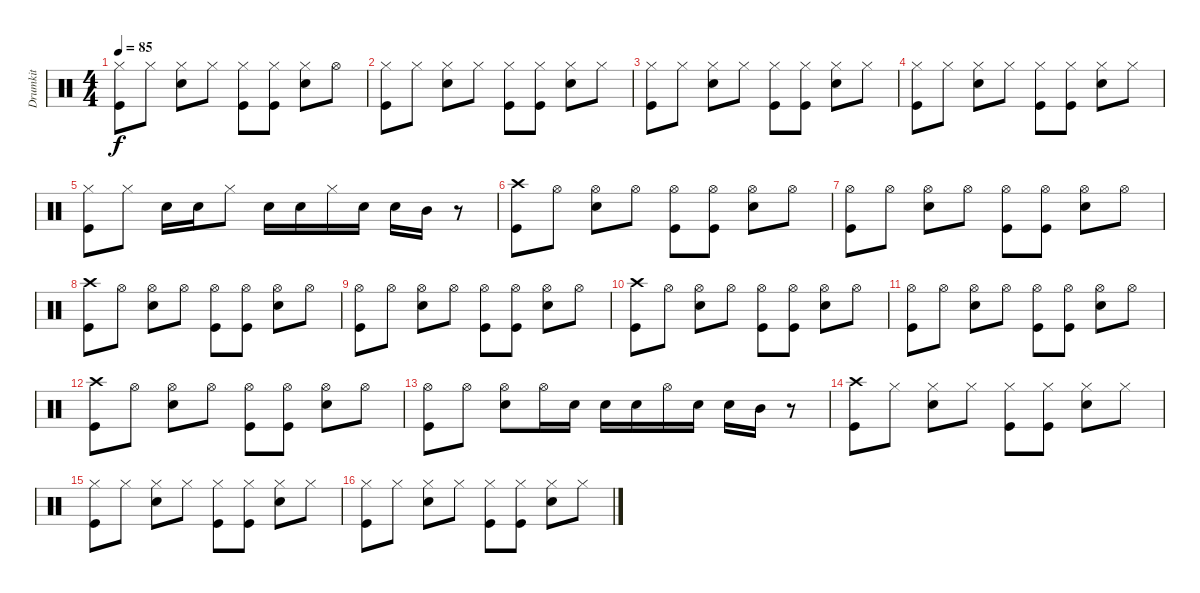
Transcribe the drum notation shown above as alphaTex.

\track ("Drumkit" "Drumkit") {instrument percussion}
\staff {score}
\articulation defaults
\ts (4 4)
\tempo 85
\clef neutral
\ks c
("Hi-Hat (closed)" "Kick (hit)").8{dy f} "Hi-Hat (closed)".8 ("Hi-Hat (closed)" "Snare (hit) 2").8 "Hi-Hat (closed)".8 ("Hi-Hat (closed)" "Kick (hit)").8 ("Hi-Hat (closed)" "Kick (hit)").8 ("Hi-Hat (closed)" "Snare (hit) 2").8 "Hi-Hat (open)".8 |
("Hi-Hat (closed)" "Kick (hit)").8 "Hi-Hat (closed)".8 ("Hi-Hat (closed)" "Snare (hit) 2").8 "Hi-Hat (closed)".8 ("Hi-Hat (closed)" "Kick (hit)").8 ("Hi-Hat (closed)" "Kick (hit)").8 ("Hi-Hat (closed)" "Snare (hit) 2").8 "Hi-Hat (closed)".8 |
("Hi-Hat (closed)" "Kick (hit)").8 "Hi-Hat (closed)".8 ("Hi-Hat (closed)" "Snare (hit) 2").8 "Hi-Hat (closed)".8 ("Hi-Hat (closed)" "Kick (hit)").8 ("Hi-Hat (closed)" "Kick (hit)").8 ("Hi-Hat (closed)" "Snare (hit) 2").8 "Hi-Hat (closed)".8 |
("Hi-Hat (closed)" "Kick (hit)").8 "Hi-Hat (closed)".8 ("Hi-Hat (closed)" "Snare (hit) 2").8 "Hi-Hat (closed)".8 ("Hi-Hat (closed)" "Kick (hit)").8 ("Hi-Hat (closed)" "Kick (hit)").8 ("Hi-Hat (closed)" "Snare (hit) 2").8 "Hi-Hat (closed)".8 |
("Hi-Hat (closed)" "Kick (hit)").8 "Hi-Hat (closed)".8 "Snare (hit) 2".16 "Snare (hit) 2".16 "Hi-Hat (closed)".8 "Snare (hit) 2".16 "Snare (hit) 2".16 "Hi-Hat (closed)".16 "Snare (hit) 2".16 "Snare (hit) 2".16 "Mid Tom (hit)".16 r.8 |
("Crash high (hit)" "Kick (hit)").8 "Hi-Hat (open)".8 ("Hi-Hat (open)" "Snare (hit) 2").8 "Hi-Hat (open)".8 ("Hi-Hat (open)" "Kick (hit)").8 ("Hi-Hat (open)" "Kick (hit)").8 ("Hi-Hat (open)" "Snare (hit) 2").8 "Hi-Hat (open)".8 |
("Hi-Hat (open)" "Kick (hit)").8 "Hi-Hat (open)".8 ("Hi-Hat (open)" "Snare (hit) 2").8 "Hi-Hat (open)".8 ("Hi-Hat (open)" "Kick (hit)").8 ("Hi-Hat (open)" "Kick (hit)").8 ("Hi-Hat (open)" "Snare (hit) 2").8 "Hi-Hat (open)".8 |
("Crash high (hit)" "Kick (hit)").8 "Hi-Hat (open)".8 ("Hi-Hat (open)" "Snare (hit) 2").8 "Hi-Hat (open)".8 ("Hi-Hat (open)" "Kick (hit)").8 ("Hi-Hat (open)" "Kick (hit)").8 ("Hi-Hat (open)" "Snare (hit) 2").8 "Hi-Hat (open)".8 |
("Hi-Hat (open)" "Kick (hit)").8 "Hi-Hat (open)".8 ("Hi-Hat (open)" "Snare (hit) 2").8 "Hi-Hat (open)".8 ("Hi-Hat (open)" "Kick (hit)").8 ("Hi-Hat (open)" "Kick (hit)").8 ("Hi-Hat (open)" "Snare (hit) 2").8 "Hi-Hat (open)".8 |
("Crash high (hit)" "Kick (hit)").8 "Hi-Hat (open)".8 ("Hi-Hat (open)" "Snare (hit) 2").8 "Hi-Hat (open)".8 ("Hi-Hat (open)" "Kick (hit)").8 ("Hi-Hat (open)" "Kick (hit)").8 ("Hi-Hat (open)" "Snare (hit) 2").8 "Hi-Hat (open)".8 |
("Hi-Hat (open)" "Kick (hit)").8 "Hi-Hat (open)".8 ("Hi-Hat (open)" "Snare (hit) 2").8 "Hi-Hat (open)".8 ("Hi-Hat (open)" "Kick (hit)").8 ("Hi-Hat (open)" "Kick (hit)").8 ("Hi-Hat (open)" "Snare (hit) 2").8 "Hi-Hat (open)".8 |
("Crash high (hit)" "Kick (hit)").8 "Hi-Hat (open)".8 ("Hi-Hat (open)" "Snare (hit) 2").8 "Hi-Hat (open)".8 ("Hi-Hat (open)" "Kick (hit)").8 ("Hi-Hat (open)" "Kick (hit)").8 ("Hi-Hat (open)" "Snare (hit) 2").8 "Hi-Hat (open)".8 |
("Hi-Hat (open)" "Kick (hit)").8 "Hi-Hat (open)".8 ("Hi-Hat (open)" "Snare (hit) 2").8 "Hi-Hat (open)".16 "Snare (hit) 2".16 "Snare (hit) 2".16 "Snare (hit) 2".16 "Hi-Hat (open)".16 "Snare (hit) 2".16 "Snare (hit) 2".16 "Mid Tom (hit)".16 r.8 |
("Crash high (hit)" "Kick (hit)").8 "Hi-Hat (closed)".8 ("Hi-Hat (closed)" "Snare (hit) 2").8 "Hi-Hat (closed)".8 ("Hi-Hat (closed)" "Kick (hit)").8 ("Hi-Hat (closed)" "Kick (hit)").8 ("Hi-Hat (closed)" "Snare (hit) 2").8 "Hi-Hat (closed)".8 |
("Hi-Hat (closed)" "Kick (hit)").8 "Hi-Hat (closed)".8 ("Hi-Hat (closed)" "Snare (hit) 2").8 "Hi-Hat (closed)".8 ("Hi-Hat (closed)" "Kick (hit)").8 ("Hi-Hat (closed)" "Kick (hit)").8 ("Hi-Hat (closed)" "Snare (hit) 2").8 "Hi-Hat (closed)".8 |
("Hi-Hat (closed)" "Kick (hit)").8 "Hi-Hat (closed)".8 ("Hi-Hat (closed)" "Snare (hit) 2").8 "Hi-Hat (closed)".8 ("Hi-Hat (closed)" "Kick (hit)").8 ("Hi-Hat (closed)" "Kick (hit)").8 ("Hi-Hat (closed)" "Snare (hit) 2").8 "Hi-Hat (closed)".8
